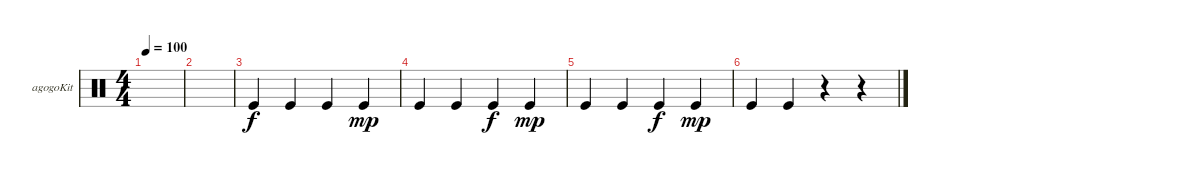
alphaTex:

\defaultSystemsLayout 4
\bracketExtendMode groupsimilarinstruments
\firstSystemTrackNameOrientation horizontal
\otherSystemsTrackNameOrientation horizontal
\track ("Agogo" "agogoKit") {instrument percussion}
\staff {score}
\articulation defaults
\ts (4 4)
\tempo 100
\clef neutral
\scale
0.333333
\ks c
|
\scale
0.333333 |
\scale
0.333333 "Kick (hit)".4 "Kick (hit)".4 "Kick (hit)".4{dy f} "Kick (hit)".4{dy mp} |
\scale
0.333333 "Kick (hit)".4 "Kick (hit)".4 "Kick (hit)".4{dy f} "Kick (hit)".4{dy mp} |
\scale
0.333333 "Kick (hit)".4 "Kick (hit)".4 "Kick (hit)".4{dy f} "Kick (hit)".4{dy mp} |
\scale
0.333333 "Kick (hit)".4 "Kick (hit)".4 r.4 r.4 |
\scale
0.333333 |
\scale
0.333333 |
\scale
0.333333
